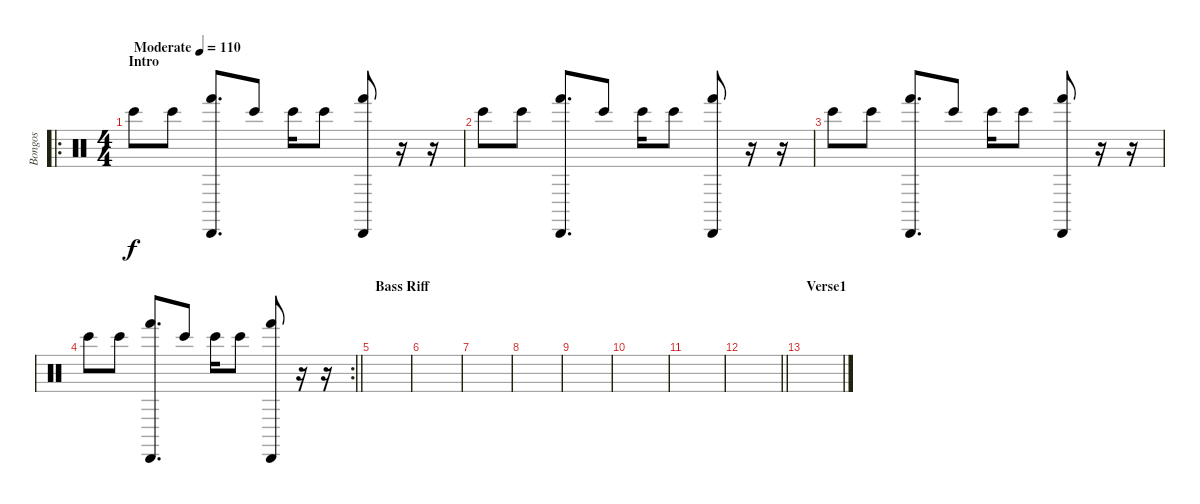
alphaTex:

\track ("Bongos" "Bongos") {instrument percussion}
\staff {score}
\articulation defaults
\ro
\ts (4 4)
\section ("" "Intro")
\tempo (110 "Moderate")
\clef neutral
\ks c "Bongo High (hit)".8{dy f} "Bongo High (hit)".8
("Hand (hit)" "Cabasa (hit)").8{d} "Bongo High (hit)".8 "Bongo High (hit)".16 "Bongo High (hit)".8 ("Hand (hit)" "Cabasa (hit)").8 r.16 r.16 |
"Bongo High (hit)".8 "Bongo High (hit)".8 ("Hand (hit)" "Cabasa (hit)").8{d} "Bongo High (hit)".8 "Bongo High (hit)".16 "Bongo High (hit)".8 ("Hand (hit)" "Cabasa (hit)").8 r.16 r.16 |
"Bongo High (hit)".8 "Bongo High (hit)".8 ("Hand (hit)" "Cabasa (hit)").8{d} "Bongo High (hit)".8 "Bongo High (hit)".16 "Bongo High (hit)".8 ("Hand (hit)" "Cabasa (hit)").8 r.16 r.16 |
\rc 2
\barLineRight lightlight "Bongo High (hit)".8 "Bongo High (hit)".8
("Hand (hit)" "Cabasa (hit)").8{d} "Bongo High (hit)".8 "Bongo High (hit)".16 "Bongo High (hit)".8 ("Hand (hit)" "Cabasa (hit)").8 r.16 r.16 |
\section ("" "Bass Riff")
|
|
|
|
|
|
|
\barLineRight lightlight
|
\section ("" "Verse1")
